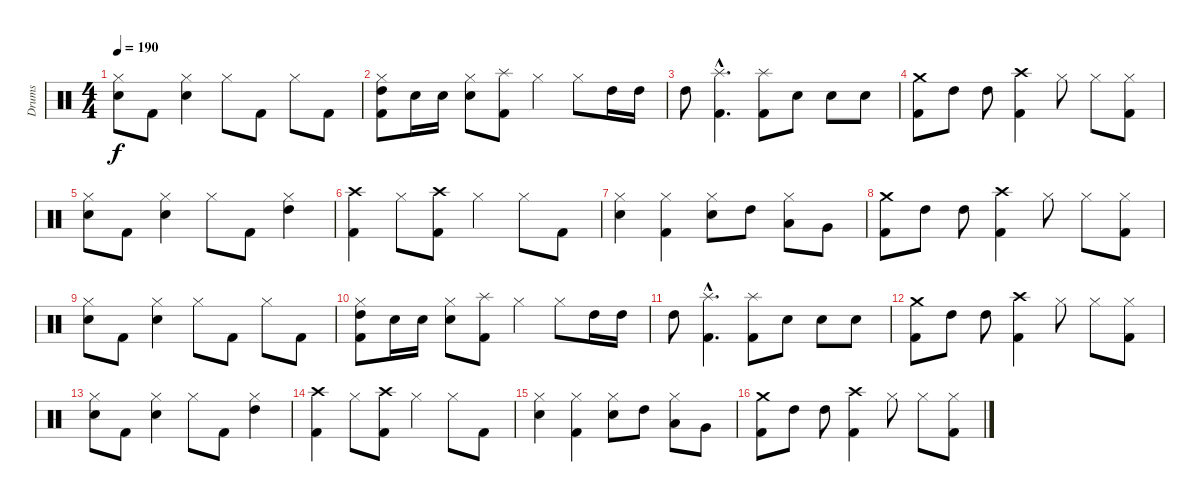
\track ("Drums" "Drums") {instrument percussion}
\staff {score}
\articulation defaults
\ts (4 4)
\tempo 190
\clef neutral
\ks c
("Hi-Hat (closed)" "Snare (hit) 2").8{dy f} "Kick (hit) 2".8 ("Hi-Hat (closed)" "Snare (hit) 2").4 "Hi-Hat (closed)".8 "Kick (hit) 2".8 "Hi-Hat (closed)".8 "Kick (hit) 2".8 |
("Hi-Hat (closed)" "High Tom (hit)" "Kick (hit) 2").8 "Snare (hit) 2".16 "Snare (hit) 2".16 ("Hi-Hat (closed)" "Snare (hit) 2").8 ("Splash (hit)" "Kick (hit) 2").8 "Hi-Hat (closed)".4 "Hi-Hat (closed)".8 "High Tom (hit)".16 "High Tom (hit)".16 |
"High Tom (hit)".8 ("Splash (hit)"{hac} "Kick (hit) 2"{hac}).4{d} ("Splash (hit)" "Kick (hit) 2").8 "Snare (hit) 2".8 "Snare (hit) 2".8 "Snare (hit) 2".8 |
("Crash medium (hit)" "Kick (hit) 2").8 "High Tom (hit)".8 "High Tom (hit)".8 ("Crash high (hit)" "Kick (hit) 2").4 "Hi-Hat (closed)".8 "Hi-Hat (closed)".8 ("Hi-Hat (closed)" "Kick (hit) 2").8 |
("Hi-Hat (closed)" "Snare (hit) 2").8 "Kick (hit) 2".8 ("Hi-Hat (closed)" "Snare (hit) 2").4 "Hi-Hat (closed)".8 "Kick (hit) 2".8 ("Hi-Hat (closed)" "High Tom (hit)").4 |
("Crash high (hit)" "Kick (hit) 2").4 "Hi-Hat (closed)".8 ("Crash high (hit)" "Kick (hit) 2").8 "Hi-Hat (closed)".4 "Hi-Hat (closed)".8 "Kick (hit) 2".8 |
("Hi-Hat (closed)" "Snare (hit) 2").4 ("Hi-Hat (closed)" "Kick (hit) 2").4 ("Hi-Hat (closed)" "Snare (hit) 2").8 "High Tom (hit)".8 ("Hi-Hat (closed)" "Low Tom (hit)").8 "Very Low Tom (hit)".8 |
("Crash medium (hit)" "Kick (hit) 2").8 "High Tom (hit)".8 "High Tom (hit)".8 ("Crash high (hit)" "Kick (hit) 2").4 "Hi-Hat (closed)".8 "Hi-Hat (closed)".8 ("Hi-Hat (closed)" "Kick (hit) 2").8 |
("Hi-Hat (closed)" "Snare (hit) 2").8 "Kick (hit) 2".8 ("Hi-Hat (closed)" "Snare (hit) 2").4 "Hi-Hat (closed)".8 "Kick (hit) 2".8 "Hi-Hat (closed)".8 "Kick (hit) 2".8 |
("Hi-Hat (closed)" "High Tom (hit)" "Kick (hit) 2").8 "Snare (hit) 2".16 "Snare (hit) 2".16 ("Hi-Hat (closed)" "Snare (hit) 2").8 ("Splash (hit)" "Kick (hit) 2").8 "Hi-Hat (closed)".4 "Hi-Hat (closed)".8 "High Tom (hit)".16 "High Tom (hit)".16 |
"High Tom (hit)".8 ("Splash (hit)"{hac} "Kick (hit) 2"{hac}).4{d} ("Splash (hit)" "Kick (hit) 2").8 "Snare (hit) 2".8 "Snare (hit) 2".8 "Snare (hit) 2".8 |
("Crash medium (hit)" "Kick (hit) 2").8 "High Tom (hit)".8 "High Tom (hit)".8 ("Crash high (hit)" "Kick (hit) 2").4 "Hi-Hat (closed)".8 "Hi-Hat (closed)".8 ("Hi-Hat (closed)" "Kick (hit) 2").8 |
("Hi-Hat (closed)" "Snare (hit) 2").8 "Kick (hit) 2".8 ("Hi-Hat (closed)" "Snare (hit) 2").4 "Hi-Hat (closed)".8 "Kick (hit) 2".8 ("Hi-Hat (closed)" "High Tom (hit)").4 |
("Crash high (hit)" "Kick (hit) 2").4 "Hi-Hat (closed)".8 ("Crash high (hit)" "Kick (hit) 2").8 "Hi-Hat (closed)".4 "Hi-Hat (closed)".8 "Kick (hit) 2".8 |
("Hi-Hat (closed)" "Snare (hit) 2").4 ("Hi-Hat (closed)" "Kick (hit) 2").4 ("Hi-Hat (closed)" "Snare (hit) 2").8 "High Tom (hit)".8 ("Hi-Hat (closed)" "Low Tom (hit)").8 "Very Low Tom (hit)".8 |
("Crash medium (hit)" "Kick (hit) 2").8 "High Tom (hit)".8 "High Tom (hit)".8 ("Crash high (hit)" "Kick (hit) 2").4 "Hi-Hat (closed)".8 "Hi-Hat (closed)".8 ("Hi-Hat (closed)" "Kick (hit) 2").8
